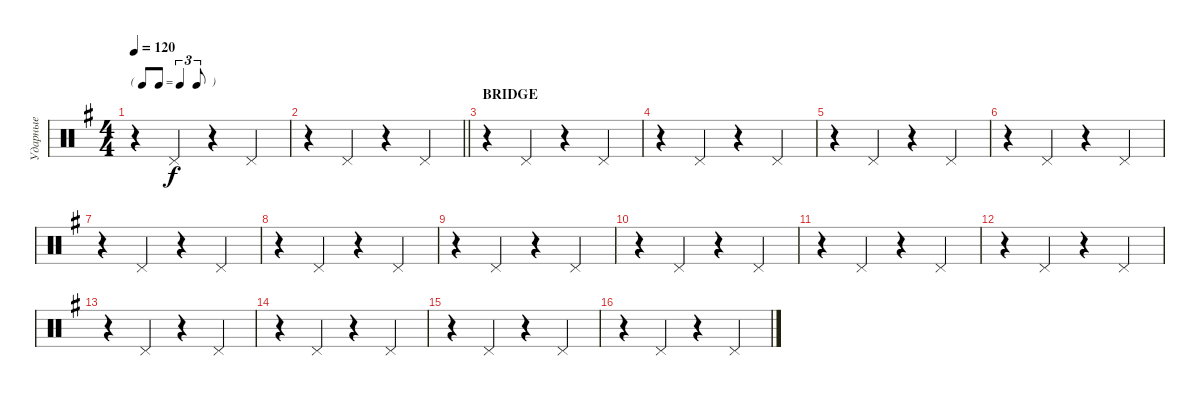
\track ("Ударные" "Ударные") {instrument percussion}
\staff {score}
\articulation defaults
\ts (4 4)
\tf triplet8th
\tempo 120
\clef neutral
\ks g
r.4{dy f} "Pedal Hi-Hat (hit)".4 r.4 "Pedal Hi-Hat (hit)".4 |
\barLineRight lightlight
r.4 "Pedal Hi-Hat (hit)".4 r.4 "Pedal Hi-Hat (hit)".4 |
\section ("" "BRIDGE")
r.4 "Pedal Hi-Hat (hit)".4 r.4 "Pedal Hi-Hat (hit)".4 |
r.4 "Pedal Hi-Hat (hit)".4 r.4 "Pedal Hi-Hat (hit)".4 |
r.4 "Pedal Hi-Hat (hit)".4 r.4 "Pedal Hi-Hat (hit)".4 |
r.4 "Pedal Hi-Hat (hit)".4 r.4 "Pedal Hi-Hat (hit)".4 |
r.4 "Pedal Hi-Hat (hit)".4 r.4 "Pedal Hi-Hat (hit)".4 |
r.4 "Pedal Hi-Hat (hit)".4 r.4 "Pedal Hi-Hat (hit)".4 |
r.4 "Pedal Hi-Hat (hit)".4 r.4 "Pedal Hi-Hat (hit)".4 |
r.4 "Pedal Hi-Hat (hit)".4 r.4 "Pedal Hi-Hat (hit)".4 |
r.4 "Pedal Hi-Hat (hit)".4 r.4 "Pedal Hi-Hat (hit)".4 |
r.4 "Pedal Hi-Hat (hit)".4 r.4 "Pedal Hi-Hat (hit)".4 |
r.4 "Pedal Hi-Hat (hit)".4 r.4 "Pedal Hi-Hat (hit)".4 |
r.4 "Pedal Hi-Hat (hit)".4 r.4 "Pedal Hi-Hat (hit)".4 |
r.4 "Pedal Hi-Hat (hit)".4 r.4 "Pedal Hi-Hat (hit)".4 |
r.4 "Pedal Hi-Hat (hit)".4 r.4 "Pedal Hi-Hat (hit)".4
